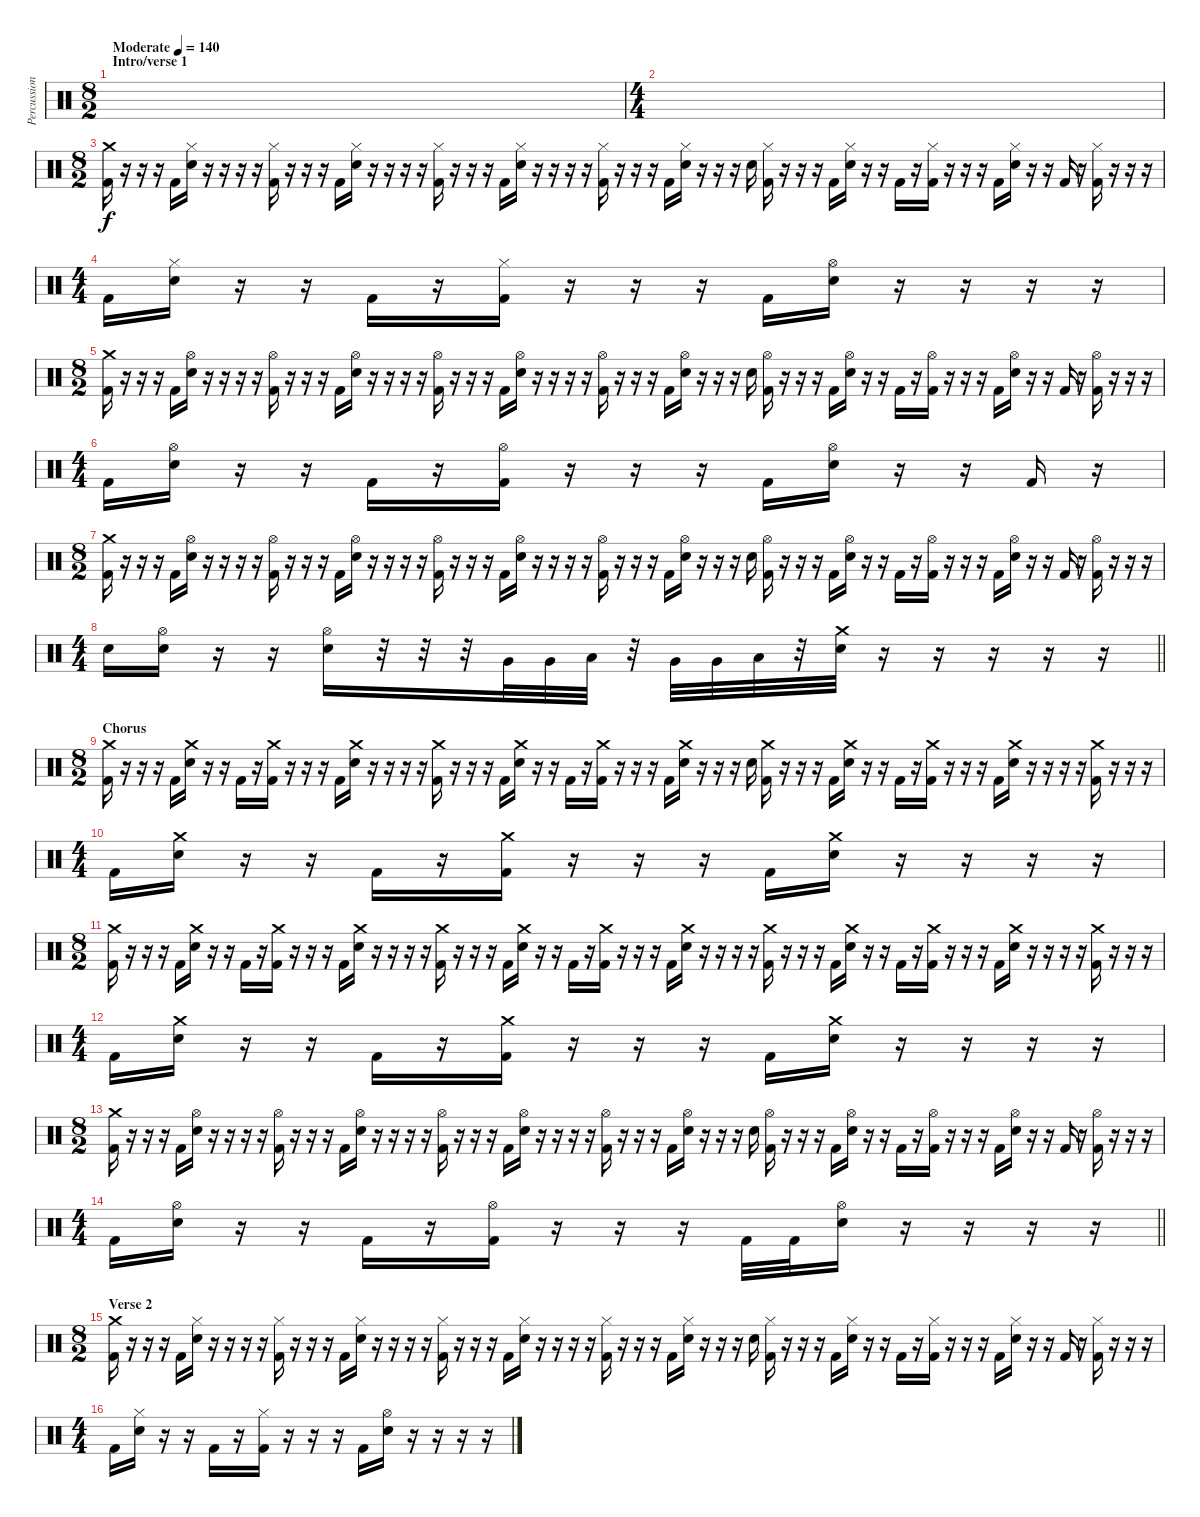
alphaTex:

\track ("Percussion" "Percussion") {instrument percussion}
\staff {score}
\articulation defaults
\ts (8 2)
\section ("" "Intro/verse 1")
\tempo (140 "Moderate")
\clef neutral
\ks c
|
\ts (4 4)
|
\ts (8 2)
("Crash medium (hit)" "Kick (hit) 2").16 r.16 r.16 r.16 "Kick (hit) 2".16 ("Hi-Hat (closed)" "Electric Snare (hit)").16 r.16 r.16 r.16 r.16 ("Hi-Hat (closed)" "Kick (hit) 2").16 r.16 r.16 r.16 "Kick (hit) 2".16 ("Hi-Hat (closed)" "Electric Snare (hit)").16 r.16 r.16 r.16 r.16 ("Hi-Hat (closed)" "Kick (hit) 2").16 r.16 r.16 r.16 "Kick (hit) 2".16 ("Hi-Hat (closed)" "Electric Snare (hit)").16 r.16 r.16 r.16 r.16 ("Hi-Hat (closed)" "Kick (hit) 2").16 r.16 r.16 r.16 "Kick (hit) 2".16 ("Hi-Hat (closed)" "Electric Snare (hit)").16 r.16 r.16 r.16 "Electric Snare (hit)".16 ("Hi-Hat (closed)" "Kick (hit) 2").16 r.16 r.16 r.16 "Kick (hit) 2".16 ("Hi-Hat (closed)" "Electric Snare (hit)").16 r.16 r.16 "Kick (hit) 2".16 r.16 ("Hi-Hat (closed)" "Kick (hit) 2").16 r.16 r.16 r.16 "Kick (hit) 2".16 ("Hi-Hat (closed)" "Electric Snare (hit)").16 r.16 r.16 "Kick (hit) 2".16 r.16 ("Hi-Hat (closed)" "Kick (hit) 2").16 r.16 r.16 r.16 |
\ts (4 4)
"Kick (hit) 2".16 ("Hi-Hat (closed)" "Electric Snare (hit)").16 r.16 r.16 "Kick (hit) 2".16 r.16 ("Hi-Hat (closed)" "Kick (hit) 2").16 r.16 r.16 r.16 "Kick (hit) 2".16 ("Hi-Hat (open)" "Electric Snare (hit)").16 r.16 r.16 r.16 r.16 |
\ts (8 2)
("Crash medium (hit)" "Kick (hit) 2").16 r.16 r.16 r.16 "Kick (hit) 2".16 ("Hi-Hat (open)" "Electric Snare (hit)").16 r.16 r.16 r.16 r.16 ("Hi-Hat (open)" "Kick (hit) 2").16 r.16 r.16 r.16 "Kick (hit) 2".16 ("Hi-Hat (open)" "Electric Snare (hit)").16 r.16 r.16 r.16 r.16 ("Hi-Hat (open)" "Kick (hit) 2").16 r.16 r.16 r.16 "Kick (hit) 2".16 ("Hi-Hat (open)" "Electric Snare (hit)").16 r.16 r.16 r.16 r.16 ("Hi-Hat (open)" "Kick (hit) 2").16 r.16 r.16 r.16 "Kick (hit) 2".16 ("Hi-Hat (open)" "Electric Snare (hit)").16 r.16 r.16 r.16 "Electric Snare (hit)".16 ("Hi-Hat (open)" "Kick (hit) 2").16 r.16 r.16 r.16 "Kick (hit) 2".16 ("Hi-Hat (open)" "Electric Snare (hit)").16 r.16 r.16 "Kick (hit) 2".16 r.16 ("Hi-Hat (open)" "Kick (hit) 2").16 r.16 r.16 r.16 "Kick (hit) 2".16 ("Hi-Hat (open)" "Electric Snare (hit)").16 r.16 r.16 "Kick (hit) 2".16 r.16 ("Hi-Hat (open)" "Kick (hit) 2").16 r.16 r.16 r.16 |
\ts (4 4)
"Kick (hit) 2".16 ("Hi-Hat (open)" "Electric Snare (hit)").16 r.16 r.16 "Kick (hit) 2".16 r.16 ("Hi-Hat (open)" "Kick (hit) 2").16 r.16 r.16 r.16 "Kick (hit) 2".16 ("Hi-Hat (open)" "Electric Snare (hit)").16 r.16 r.16 "Kick (hit) 2".16 r.16 |
\ts (8 2)
("Crash medium (hit)" "Kick (hit) 2").16 r.16 r.16 r.16 "Kick (hit) 2".16 ("Hi-Hat (open)" "Electric Snare (hit)").16 r.16 r.16 r.16 r.16 ("Hi-Hat (open)" "Kick (hit) 2").16 r.16 r.16 r.16 "Kick (hit) 2".16 ("Hi-Hat (open)" "Electric Snare (hit)").16 r.16 r.16 r.16 r.16 ("Hi-Hat (open)" "Kick (hit) 2").16 r.16 r.16 r.16 "Kick (hit) 2".16 ("Hi-Hat (open)" "Electric Snare (hit)").16 r.16 r.16 r.16 r.16 ("Hi-Hat (open)" "Kick (hit) 2").16 r.16 r.16 r.16 "Kick (hit) 2".16 ("Hi-Hat (open)" "Electric Snare (hit)").16 r.16 r.16 r.16 "Electric Snare (hit)".16 ("Hi-Hat (open)" "Kick (hit) 2").16 r.16 r.16 r.16 "Kick (hit) 2".16 ("Hi-Hat (open)" "Electric Snare (hit)").16 r.16 r.16 "Kick (hit) 2".16 r.16 ("Hi-Hat (open)" "Kick (hit) 2").16 r.16 r.16 r.16 "Kick (hit) 2".16 ("Hi-Hat (open)" "Electric Snare (hit)").16 r.16 r.16 "Kick (hit) 2".16 r.16 ("Hi-Hat (open)" "Kick (hit) 2").16 r.16 r.16 r.16 |
\ts (4 4)
\barLineRight lightlight "Snare (hit)".16
("Hi-Hat (open)" "Electric Snare (hit)").16 r.16 r.16 ("Hi-Hat (open)" "Electric Snare (hit)").16 r.32 r.32 r.32 "Very Low Tom (hit)".32 "Very Low Tom (hit)".32 "Low Tom (hit)".32 r.32 "Very Low Tom (hit)".32 "Very Low Tom (hit)".32 "Low Tom (hit)".32 r.32 ("Crash medium (hit)" "Electric Snare (hit)").32 r.16 r.16 r.16 r.16 r.16 |
\ts (8 2)
\section ("" "Chorus")
("Crash medium (hit)" "Kick (hit) 2").16 r.16 r.16 r.16 "Kick (hit) 2".16 ("Crash medium (hit)" "Electric Snare (hit)").16 r.16 r.16 "Kick (hit) 2".16 r.16 ("Crash medium (hit)" "Kick (hit) 2").16 r.16 r.16 r.16 "Kick (hit) 2".16 ("Crash medium (hit)" "Electric Snare (hit)").16 r.16 r.16 r.16 r.16 ("Crash medium (hit)" "Kick (hit) 2").16 r.16 r.16 r.16 "Kick (hit) 2".16 ("Crash medium (hit)" "Electric Snare (hit)").16 r.16 r.16 "Kick (hit) 2".16 r.16 ("Crash medium (hit)" "Kick (hit) 2").16 r.16 r.16 r.16 "Kick (hit) 2".16 ("Crash medium (hit)" "Electric Snare (hit)").16 r.16 r.16 r.16 "Electric Snare (hit)".16 ("Crash medium (hit)" "Kick (hit) 2").16 r.16 r.16 r.16 "Kick (hit) 2".16 ("Crash medium (hit)" "Electric Snare (hit)").16 r.16 r.16 "Kick (hit) 2".16 r.16 ("Crash medium (hit)" "Kick (hit) 2").16 r.16 r.16 r.16 "Kick (hit) 2".16 ("Crash medium (hit)" "Electric Snare (hit)").16 r.16 r.16 r.16 r.16 ("Crash medium (hit)" "Kick (hit) 2").16 r.16 r.16 r.16 |
\ts (4 4)
"Kick (hit) 2".16 ("Crash medium (hit)" "Electric Snare (hit)").16 r.16 r.16 "Kick (hit) 2".16 r.16 ("Crash medium (hit)" "Kick (hit) 2").16 r.16 r.16 r.16 "Kick (hit) 2".16 ("Crash medium (hit)" "Electric Snare (hit)").16 r.16 r.16 r.16 r.16 |
\ts (8 2)
("Crash medium (hit)" "Kick (hit) 2").16 r.16 r.16 r.16 "Kick (hit) 2".16 ("Crash medium (hit)" "Electric Snare (hit)").16 r.16 r.16 "Kick (hit) 2".16 r.16 ("Crash medium (hit)" "Kick (hit) 2").16 r.16 r.16 r.16 "Kick (hit) 2".16 ("Crash medium (hit)" "Electric Snare (hit)").16 r.16 r.16 r.16 r.16 ("Crash medium (hit)" "Kick (hit) 2").16 r.16 r.16 r.16 "Kick (hit) 2".16 ("Crash medium (hit)" "Electric Snare (hit)").16 r.16 r.16 "Kick (hit) 2".16 r.16 ("Crash medium (hit)" "Kick (hit) 2").16 r.16 r.16 r.16 "Kick (hit) 2".16 ("Crash medium (hit)" "Electric Snare (hit)").16 r.16 r.16 r.16 r.16 ("Crash medium (hit)" "Kick (hit) 2").16 r.16 r.16 r.16 "Kick (hit) 2".16 ("Crash medium (hit)" "Electric Snare (hit)").16 r.16 r.16 "Kick (hit) 2".16 r.16 ("Crash medium (hit)" "Kick (hit) 2").16 r.16 r.16 r.16 "Kick (hit) 2".16 ("Crash medium (hit)" "Electric Snare (hit)").16 r.16 r.16 r.16 r.16 ("Crash medium (hit)" "Kick (hit) 2").16 r.16 r.16 r.16 |
\ts (4 4)
"Kick (hit) 2".16 ("Crash medium (hit)" "Electric Snare (hit)").16 r.16 r.16 "Kick (hit) 2".16 r.16 ("Crash medium (hit)" "Kick (hit) 2").16 r.16 r.16 r.16 "Kick (hit) 2".16 ("Crash medium (hit)" "Electric Snare (hit)").16 r.16 r.16 r.16 r.16 |
\ts (8 2)
("Crash medium (hit)" "Kick (hit) 2").16 r.16 r.16 r.16 "Kick (hit) 2".16 ("Hi-Hat (open)" "Electric Snare (hit)").16 r.16 r.16 r.16 r.16 ("Hi-Hat (open)" "Kick (hit) 2").16 r.16 r.16 r.16 "Kick (hit) 2".16 ("Hi-Hat (open)" "Electric Snare (hit)").16 r.16 r.16 r.16 r.16 ("Hi-Hat (open)" "Kick (hit) 2").16 r.16 r.16 r.16 "Kick (hit) 2".16 ("Hi-Hat (open)" "Electric Snare (hit)").16 r.16 r.16 r.16 r.16 ("Hi-Hat (open)" "Kick (hit) 2").16 r.16 r.16 r.16 "Kick (hit) 2".16 ("Hi-Hat (open)" "Electric Snare (hit)").16 r.16 r.16 r.16 "Electric Snare (hit)".16 ("Hi-Hat (open)" "Kick (hit) 2").16 r.16 r.16 r.16 "Kick (hit) 2".16 ("Hi-Hat (open)" "Electric Snare (hit)").16 r.16 r.16 "Kick (hit) 2".16 r.16 ("Hi-Hat (open)" "Kick (hit) 2").16 r.16 r.16 r.16 "Kick (hit) 2".16 ("Hi-Hat (open)" "Electric Snare (hit)").16 r.16 r.16 "Kick (hit) 2".16 r.16 ("Hi-Hat (open)" "Kick (hit) 2").16 r.16 r.16 r.16 |
\ts (4 4)
\barLineRight lightlight "Kick (hit) 2".16
("Hi-Hat (open)" "Electric Snare (hit)").16 r.16 r.16 "Kick (hit) 2".16 r.16 ("Hi-Hat (open)" "Kick (hit) 2").16 r.16 r.16 r.16 "Kick (hit) 2".32 "Kick (hit) 2".32 ("Hi-Hat (open)" "Electric Snare (hit)").16 r.16 r.16 r.16 r.16 |
\ts (8 2)
\section ("" "Verse 2")
("Crash medium (hit)" "Kick (hit) 2").16 r.16 r.16 r.16 "Kick (hit) 2".16 ("Hi-Hat (closed)" "Electric Snare (hit)").16 r.16 r.16 r.16 r.16 ("Hi-Hat (closed)" "Kick (hit) 2").16 r.16 r.16 r.16 "Kick (hit) 2".16 ("Hi-Hat (closed)" "Electric Snare (hit)").16 r.16 r.16 r.16 r.16 ("Hi-Hat (closed)" "Kick (hit) 2").16 r.16 r.16 r.16 "Kick (hit) 2".16 ("Hi-Hat (closed)" "Electric Snare (hit)").16 r.16 r.16 r.16 r.16 ("Hi-Hat (closed)" "Kick (hit) 2").16 r.16 r.16 r.16 "Kick (hit) 2".16 ("Hi-Hat (closed)" "Electric Snare (hit)").16 r.16 r.16 r.16 "Electric Snare (hit)".16 ("Hi-Hat (closed)" "Kick (hit) 2").16 r.16 r.16 r.16 "Kick (hit) 2".16 ("Hi-Hat (closed)" "Electric Snare (hit)").16 r.16 r.16 "Kick (hit) 2".16 r.16 ("Hi-Hat (closed)" "Kick (hit) 2").16 r.16 r.16 r.16 "Kick (hit) 2".16 ("Hi-Hat (closed)" "Electric Snare (hit)").16 r.16 r.16 "Kick (hit) 2".16 r.16 ("Hi-Hat (closed)" "Kick (hit) 2").16 r.16 r.16 r.16 |
\ts (4 4)
"Kick (hit) 2".16 ("Hi-Hat (closed)" "Electric Snare (hit)").16 r.16 r.16 "Kick (hit) 2".16 r.16 ("Hi-Hat (closed)" "Kick (hit) 2").16 r.16 r.16 r.16 "Kick (hit) 2".16 ("Hi-Hat (open)" "Electric Snare (hit)").16 r.16 r.16 r.16 r.16
